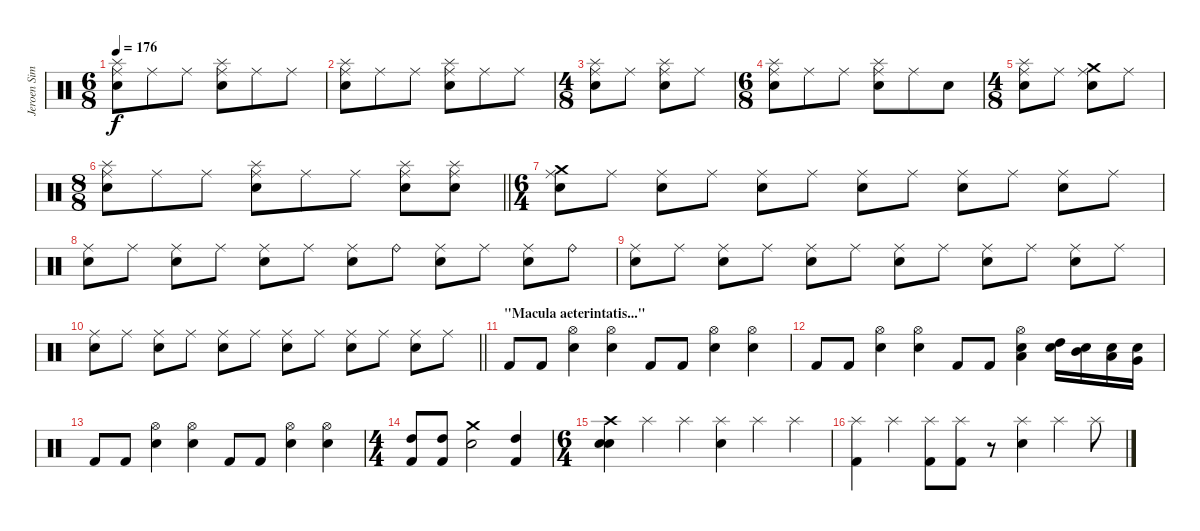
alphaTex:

\track ("Jeroen Simons" "Jeroen Sim") {instrument percussion}
\staff {score}
\articulation defaults
\ts (6 8)
\tempo 176
\clef neutral
\ks c
("Ride (middle)" "Splash (hit)" "Electric Snare (hit)").8{dy f} "Ride (middle)".8 "Ride (middle)".8 ("Ride (middle)" "Splash (hit)" "Electric Snare (hit)").8 "Ride (middle)".8 "Ride (middle)".8 |
("Ride (middle)" "Splash (hit)" "Electric Snare (hit)").8 "Ride (middle)".8 "Ride (middle)".8 ("Ride (middle)" "Splash (hit)" "Electric Snare (hit)").8 "Ride (middle)".8 "Ride (middle)".8 |
\ts (4 8)
("Ride (middle)" "Splash (hit)" "Electric Snare (hit)").8 "Ride (middle)".8 ("Ride (middle)" "Splash (hit)" "Electric Snare (hit)").8 "Ride (middle)".8 |
\ts (6 8)
("Ride (middle)" "Splash (hit)" "Electric Snare (hit)").8 "Ride (middle)".8 "Ride (middle)".8 ("Ride (middle)" "Splash (hit)" "Electric Snare (hit)").8 "Ride (middle)".8 "Snare (hit)".8 |
\ts (4 8)
("Ride (middle)" "Splash (hit)" "Electric Snare (hit)").8 "Ride (middle)".8 ("Ride (middle)" "Crash medium (hit)" "Electric Snare (hit)").8 "Ride (middle)".8 |
\ts (8 8)
\barLineRight lightlight
("Ride (middle)" "Splash (hit)" "Electric Snare (hit)").8 "Ride (middle)".8 "Ride (middle)".8 ("Ride (middle)" "Splash (hit)" "Electric Snare (hit)").8 "Ride (middle)".8 "Ride (middle)".8 ("Ride (middle)" "Splash (hit)" "Electric Snare (hit)").8 ("Ride (middle)" "Splash (hit)" "Electric Snare (hit)").8 |
\ts (6 4)
\section ("" "")
("Ride (middle)" "Electric Snare (hit)" "Crash medium (hit)").8 "Ride (middle)".8 ("Ride (middle)" "Electric Snare (hit)").8 "Ride (middle)".8 ("Ride (middle)" "Electric Snare (hit)").8 "Ride (middle)".8 ("Ride (middle)" "Electric Snare (hit)").8 "Ride (middle)".8 ("Ride (middle)" "Electric Snare (hit)").8 "Ride (middle)".8 ("Ride (middle)" "Electric Snare (hit)").8 "Ride (middle)".8 |
("Ride (middle)" "Electric Snare (hit)").8 "Ride (middle)".8 ("Ride (middle)" "Electric Snare (hit)").8 "Ride (middle)".8 ("Ride (middle)" "Electric Snare (hit)").8 "Ride (middle)".8 ("Ride (middle)" "Electric Snare (hit)").8 "Ride (bell)".8 ("Ride (middle)" "Electric Snare (hit)").8 "Ride (middle)".8 ("Ride (middle)" "Electric Snare (hit)").8 "Ride (bell)".8 |
("Ride (middle)" "Electric Snare (hit)").8 "Ride (middle)".8 ("Ride (middle)" "Electric Snare (hit)").8 "Ride (middle)".8 ("Ride (middle)" "Electric Snare (hit)").8 "Ride (middle)".8 ("Ride (middle)" "Electric Snare (hit)").8 "Ride (middle)".8 ("Ride (middle)" "Electric Snare (hit)").8 "Ride (middle)".8 ("Ride (middle)" "Electric Snare (hit)").8 "Ride (middle)".8 |
\barLineRight lightlight
("Ride (middle)" "Electric Snare (hit)").8 "Ride (middle)".8 ("Ride (middle)" "Electric Snare (hit)").8 "Ride (middle)".8 ("Ride (middle)" "Electric Snare (hit)").8 "Ride (middle)".8 ("Ride (middle)" "Electric Snare (hit)").8 "Ride (middle)".8 ("Ride (middle)" "Electric Snare (hit)").8 "Ride (middle)".8 ("Ride (middle)" "Electric Snare (hit)").8 "Ride (middle)".8 |
\section ("" "\"Macula aeterintatis...\"")
"Kick (hit) 2".8 "Kick (hit) 2".8 ("Hi-Hat (open)" "Electric Snare (hit)").4 ("Hi-Hat (open)" "Electric Snare (hit)").4 "Kick (hit) 2".8 "Kick (hit) 2".8 ("Hi-Hat (open)" "Electric Snare (hit)").4 ("Hi-Hat (open)" "Electric Snare (hit)").4 |
"Kick (hit) 2".8 "Kick (hit) 2".8 ("Hi-Hat (open)" "Electric Snare (hit)").4 ("Hi-Hat (open)" "Electric Snare (hit)").4 "Kick (hit) 2".8 "Kick (hit) 2".8 ("Hi-Hat (open)" "Low Floor Tom (hit)" "Electric Snare (hit)").4 ("Electric Snare (hit)" "High Tom (hit)").16 ("Electric Snare (hit)" "Mid Tom (hit)").16 ("Electric Snare (hit)" "Low Tom (hit)").16 ("Electric Snare (hit)" "Very Low Tom (hit)").16 |
"Kick (hit) 2".8 "Kick (hit) 2".8 ("Hi-Hat (open)" "Electric Snare (hit)").4 ("Hi-Hat (open)" "Electric Snare (hit)").4 "Kick (hit) 2".8 "Kick (hit) 2".8 ("Hi-Hat (open)" "Electric Snare (hit)").4 ("Hi-Hat (open)" "Electric Snare (hit)").4 |
\ts (4 4)
("High Tom (hit)" "Kick (hit) 2").8 ("High Tom (hit)" "Kick (hit) 2").8 ("Crash medium (hit)" "Electric Snare (hit)").2 ("High Tom (hit)" "Kick (hit) 2").4 |
\ts (6 4)
("Crash high (hit)" "Electric Snare (hit)" "Snare (hit) 2").4 "Splash (hit)".4 "Splash (hit)".4 ("Splash (hit)" "Electric Snare (hit)").4 "Splash (hit)".4 "Splash (hit)".4 |
("Splash (hit)" "Kick (hit) 2").4 "Splash (hit)".4 ("Splash (hit)" "Kick (hit) 2").8 ("Splash (hit)" "Kick (hit) 2").8 r.8 ("Splash (hit)" "Electric Snare (hit)").4 "Splash (hit)".4 "Splash (hit)".8
